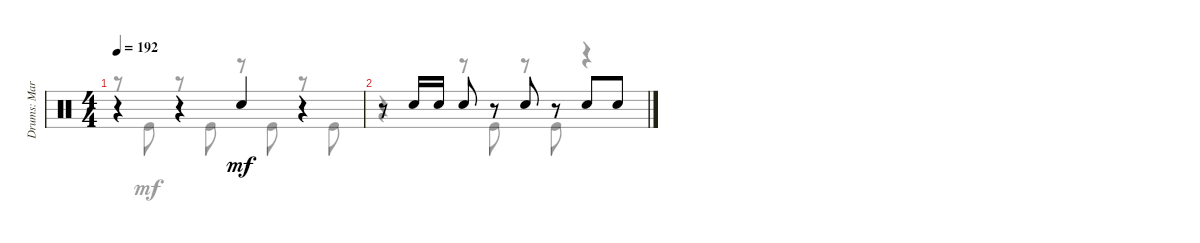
\track ("Drums: Mario Duplantier" "Drums: Mar") {instrument percussion}
\staff {score}
\articulation defaults
\voice
\ts (4 4)
\tempo 192
\clef neutral
\ks c
r.4{dy mf} r.4 "Snare (hit) 2".4 r.4 |
r.8 "Snare (hit) 2".16 "Snare (hit) 2".16 "Snare (hit) 2".8 r.8 "Snare (hit) 2".8 r.8 "Snare (hit) 2".8 "Snare (hit) 2".8 |
\voice
\clef neutral
\ottava regular
\simile none
\ks c
r.8{dy mf} "Kick (hit)".8 r.8 "Kick (hit)".8 r.8 "Kick (hit)".8 r.8 "Kick (hit)".8 |
r.4 r.8 "Kick (hit)".8 r.8 "Kick (hit)".8 r.4 |
